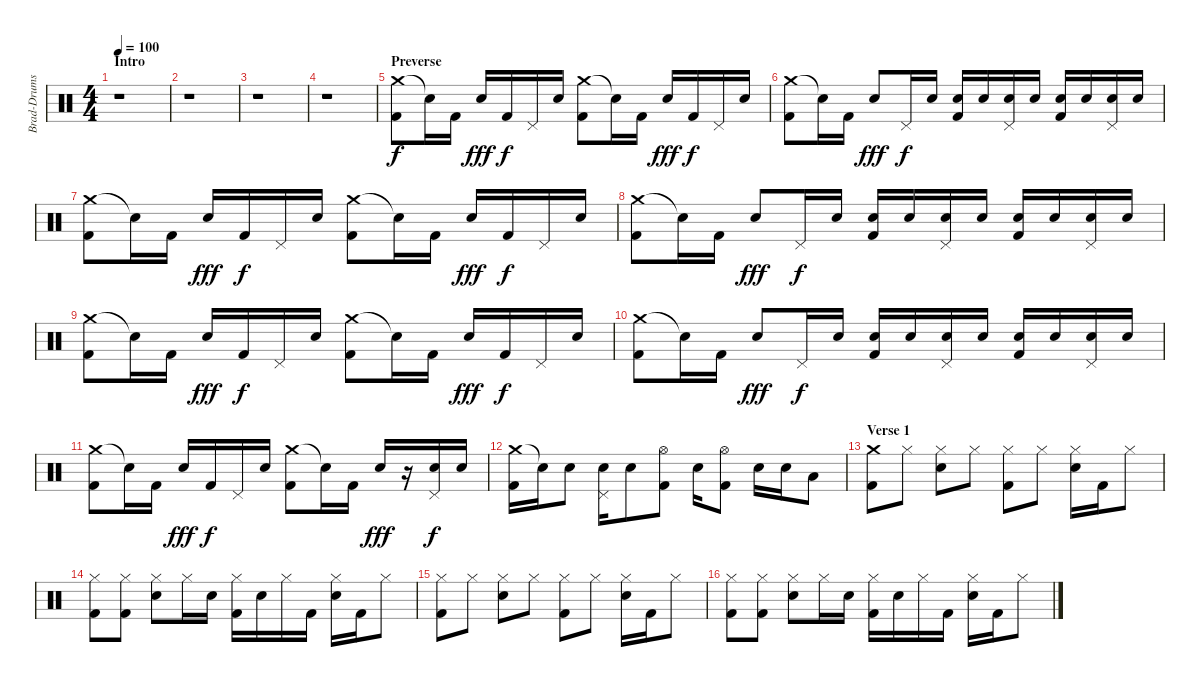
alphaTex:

\track ("Brad-Drums" "Brad-Drums") {instrument percussion}
\staff {score}
\articulation defaults
\ts (4 4)
\section ("" "Intro")
\tempo 100
\clef neutral
\ks c
r.1{dy f} |
r.1 |
r.1 |
r.1 |
\section ("" "Preverse")
("Crash medium (hit)" "Kick (hit) 2").8 "Snare (hit)"{t}.16 "Kick (hit) 2".16 "Electric Snare (hit)".16{dy fff} "Kick (hit) 2".16{dy f} "Pedal Hi-Hat (hit)".16 "Electric Snare (hit)".16 ("Crash medium (hit)" "Kick (hit) 2").8 "Snare (hit)"{t}.16 "Kick (hit) 2".16 "Electric Snare (hit)".16{dy fff} "Kick (hit) 2".16{dy f} "Pedal Hi-Hat (hit)".16 "Electric Snare (hit)".16 |
("Crash medium (hit)" "Kick (hit) 2").8 "Snare (hit)"{t}.16 "Kick (hit) 2".16 "Electric Snare (hit)".8{dy fff} "Pedal Hi-Hat (hit)".16{dy f} "Electric Snare (hit)".16 ("Electric Snare (hit)" "Kick (hit) 2").16 "Electric Snare (hit)".16 ("Pedal Hi-Hat (hit)" "Electric Snare (hit)").16 "Electric Snare (hit)".16 ("Electric Snare (hit)" "Kick (hit) 2").16 "Electric Snare (hit)".16 ("Pedal Hi-Hat (hit)" "Electric Snare (hit)").16 "Electric Snare (hit)".16 |
("Crash medium (hit)" "Kick (hit) 2").8 "Snare (hit)"{t}.16 "Kick (hit) 2".16 "Electric Snare (hit)".16{dy fff} "Kick (hit) 2".16{dy f} "Pedal Hi-Hat (hit)".16 "Electric Snare (hit)".16 ("Crash medium (hit)" "Kick (hit) 2").8 "Snare (hit)"{t}.16 "Kick (hit) 2".16 "Electric Snare (hit)".16{dy fff} "Kick (hit) 2".16{dy f} "Pedal Hi-Hat (hit)".16 "Electric Snare (hit)".16 |
("Crash medium (hit)" "Kick (hit) 2").8 "Snare (hit)"{t}.16 "Kick (hit) 2".16 "Electric Snare (hit)".8{dy fff} "Pedal Hi-Hat (hit)".16{dy f} "Electric Snare (hit)".16 ("Electric Snare (hit)" "Kick (hit) 2").16 "Electric Snare (hit)".16 ("Pedal Hi-Hat (hit)" "Electric Snare (hit)").16 "Electric Snare (hit)".16 ("Electric Snare (hit)" "Kick (hit) 2").16 "Electric Snare (hit)".16 ("Pedal Hi-Hat (hit)" "Electric Snare (hit)").16 "Electric Snare (hit)".16 |
("Crash medium (hit)" "Kick (hit) 2").8 "Snare (hit)"{t}.16 "Kick (hit) 2".16 "Electric Snare (hit)".16{dy fff} "Kick (hit) 2".16{dy f} "Pedal Hi-Hat (hit)".16 "Electric Snare (hit)".16 ("Crash medium (hit)" "Kick (hit) 2").8 "Snare (hit)"{t}.16 "Kick (hit) 2".16 "Electric Snare (hit)".16{dy fff} "Kick (hit) 2".16{dy f} "Pedal Hi-Hat (hit)".16 "Electric Snare (hit)".16 |
("Crash medium (hit)" "Kick (hit) 2").8 "Snare (hit)"{t}.16 "Kick (hit) 2".16 "Electric Snare (hit)".8{dy fff} "Pedal Hi-Hat (hit)".16{dy f} "Electric Snare (hit)".16 ("Electric Snare (hit)" "Kick (hit) 2").16 "Electric Snare (hit)".16 ("Pedal Hi-Hat (hit)" "Electric Snare (hit)").16 "Electric Snare (hit)".16 ("Electric Snare (hit)" "Kick (hit) 2").16 "Electric Snare (hit)".16 ("Pedal Hi-Hat (hit)" "Electric Snare (hit)").16 "Electric Snare (hit)".16 |
("Crash medium (hit)" "Kick (hit) 2").8 "Snare (hit)"{t}.16 "Kick (hit) 2".16 "Electric Snare (hit)".16{dy fff} "Kick (hit) 2".16{dy f} "Pedal Hi-Hat (hit)".16 "Electric Snare (hit)".16 ("Crash medium (hit)" "Kick (hit) 2").8 "Snare (hit)"{t}.16 "Kick (hit) 2".16 "Electric Snare (hit)".16{dy fff} r.16 ("Pedal Hi-Hat (hit)" "Electric Snare (hit)").16{dy f} "Electric Snare (hit)".16 |
("Crash medium (hit)" "Kick (hit) 2").16 "Snare (hit)"{t}.16 "Electric Snare (hit)".8 ("Pedal Hi-Hat (hit)" "Electric Snare (hit)").16 "Electric Snare (hit)".8 ("Hi-Hat (open)" "Kick (hit) 2").8 "Electric Snare (hit)".16 ("Hi-Hat (open)" "Kick (hit) 2").8 "Electric Snare (hit)".16 "Electric Snare (hit)".16 "Low Tom (hit)".8 |
\section ("" "Verse 1")
("Crash medium (hit)" "Kick (hit) 2").8 "Hi-Hat (closed)".8 ("Hi-Hat (closed)" "Electric Snare (hit)").8 "Hi-Hat (closed)".8 ("Hi-Hat (closed)" "Kick (hit) 2").8 "Hi-Hat (closed)".8 ("Hi-Hat (closed)" "Electric Snare (hit)").16 "Kick (hit) 2".16 "Hi-Hat (closed)".8 |
("Hi-Hat (closed)" "Kick (hit) 2").8 ("Hi-Hat (closed)" "Kick (hit) 2").8 ("Hi-Hat (closed)" "Electric Snare (hit)").8 "Hi-Hat (closed)".16 "Electric Snare (hit)".16 ("Hi-Hat (closed)" "Kick (hit) 2").16 "Electric Snare (hit)".16 "Hi-Hat (closed)".16 "Kick (hit) 2".16 ("Hi-Hat (closed)" "Electric Snare (hit)").16 "Kick (hit) 2".16 "Hi-Hat (closed)".8 |
("Hi-Hat (closed)" "Kick (hit) 2").8 "Hi-Hat (closed)".8 ("Hi-Hat (closed)" "Electric Snare (hit)").8 "Hi-Hat (closed)".8 ("Hi-Hat (closed)" "Kick (hit) 2").8 "Hi-Hat (closed)".8 ("Hi-Hat (closed)" "Electric Snare (hit)").16 "Kick (hit) 2".16 "Hi-Hat (closed)".8 |
("Hi-Hat (closed)" "Kick (hit) 2").8 ("Hi-Hat (closed)" "Kick (hit) 2").8 ("Hi-Hat (closed)" "Electric Snare (hit)").8 "Hi-Hat (closed)".16 "Electric Snare (hit)".16 ("Hi-Hat (closed)" "Kick (hit) 2").16 "Electric Snare (hit)".16 "Hi-Hat (closed)".16 "Kick (hit) 2".16 ("Hi-Hat (closed)" "Electric Snare (hit)").16 "Kick (hit) 2".16 "Hi-Hat (closed)".8
